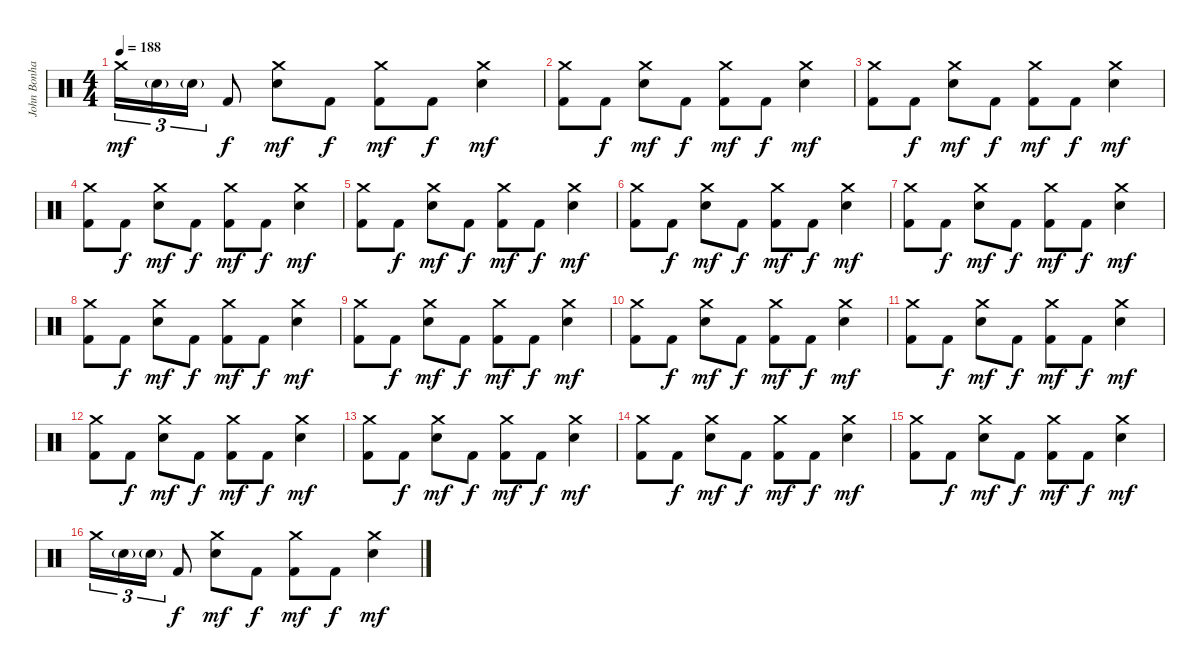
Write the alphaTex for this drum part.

\track ("John Bonham - Drums" "John Bonha") {instrument percussion}
\staff {score}
\articulation defaults
\ts (4 4)
\tempo 188
\clef neutral
\ks c "Crash medium (hit)".16{tu (3 2) dy mf} "Electric Snare (hit)"{g}.16{tu (3 2)} "Electric Snare (hit)"{g}.16{tu (3 2)} "Kick (hit) 2".8{dy f}
("Crash medium (hit)" "Electric Snare (hit)").8{dy mf} "Kick (hit) 2".8{dy f} ("Crash medium (hit)" "Kick (hit) 2").8{dy mf} "Kick (hit) 2".8{dy f} ("Crash medium (hit)" "Electric Snare (hit)").4{dy mf} |
("Crash medium (hit)" "Kick (hit) 2").8 "Kick (hit) 2".8{dy f} ("Crash medium (hit)" "Electric Snare (hit)").8{dy mf} "Kick (hit) 2".8{dy f} ("Crash medium (hit)" "Kick (hit) 2").8{dy mf} "Kick (hit) 2".8{dy f} ("Crash medium (hit)" "Electric Snare (hit)").4{dy mf} |
("Crash medium (hit)" "Kick (hit) 2").8 "Kick (hit) 2".8{dy f} ("Crash medium (hit)" "Electric Snare (hit)").8{dy mf} "Kick (hit) 2".8{dy f} ("Crash medium (hit)" "Kick (hit) 2").8{dy mf} "Kick (hit) 2".8{dy f} ("Crash medium (hit)" "Electric Snare (hit)").4{dy mf} |
("Crash medium (hit)" "Kick (hit) 2").8 "Kick (hit) 2".8{dy f} ("Crash medium (hit)" "Electric Snare (hit)").8{dy mf} "Kick (hit) 2".8{dy f} ("Crash medium (hit)" "Kick (hit) 2").8{dy mf} "Kick (hit) 2".8{dy f} ("Crash medium (hit)" "Electric Snare (hit)").4{dy mf} |
("Crash medium (hit)" "Kick (hit) 2").8 "Kick (hit) 2".8{dy f} ("Crash medium (hit)" "Electric Snare (hit)").8{dy mf} "Kick (hit) 2".8{dy f} ("Crash medium (hit)" "Kick (hit) 2").8{dy mf} "Kick (hit) 2".8{dy f} ("Crash medium (hit)" "Electric Snare (hit)").4{dy mf} |
("Crash medium (hit)" "Kick (hit) 2").8 "Kick (hit) 2".8{dy f} ("Crash medium (hit)" "Electric Snare (hit)").8{dy mf} "Kick (hit) 2".8{dy f} ("Crash medium (hit)" "Kick (hit) 2").8{dy mf} "Kick (hit) 2".8{dy f} ("Crash medium (hit)" "Electric Snare (hit)").4{dy mf} |
("Crash medium (hit)" "Kick (hit) 2").8 "Kick (hit) 2".8{dy f} ("Crash medium (hit)" "Electric Snare (hit)").8{dy mf} "Kick (hit) 2".8{dy f} ("Crash medium (hit)" "Kick (hit) 2").8{dy mf} "Kick (hit) 2".8{dy f} ("Crash medium (hit)" "Electric Snare (hit)").4{dy mf} |
("Crash medium (hit)" "Kick (hit) 2").8 "Kick (hit) 2".8{dy f} ("Crash medium (hit)" "Electric Snare (hit)").8{dy mf} "Kick (hit) 2".8{dy f} ("Crash medium (hit)" "Kick (hit) 2").8{dy mf} "Kick (hit) 2".8{dy f} ("Crash medium (hit)" "Electric Snare (hit)").4{dy mf} |
("Crash medium (hit)" "Kick (hit) 2").8 "Kick (hit) 2".8{dy f} ("Crash medium (hit)" "Electric Snare (hit)").8{dy mf} "Kick (hit) 2".8{dy f} ("Crash medium (hit)" "Kick (hit) 2").8{dy mf} "Kick (hit) 2".8{dy f} ("Crash medium (hit)" "Electric Snare (hit)").4{dy mf} |
("Crash medium (hit)" "Kick (hit) 2").8 "Kick (hit) 2".8{dy f} ("Crash medium (hit)" "Electric Snare (hit)").8{dy mf} "Kick (hit) 2".8{dy f} ("Crash medium (hit)" "Kick (hit) 2").8{dy mf} "Kick (hit) 2".8{dy f} ("Crash medium (hit)" "Electric Snare (hit)").4{dy mf} |
("Crash medium (hit)" "Kick (hit) 2").8 "Kick (hit) 2".8{dy f} ("Crash medium (hit)" "Electric Snare (hit)").8{dy mf} "Kick (hit) 2".8{dy f} ("Crash medium (hit)" "Kick (hit) 2").8{dy mf} "Kick (hit) 2".8{dy f} ("Crash medium (hit)" "Electric Snare (hit)").4{dy mf} |
("Crash medium (hit)" "Kick (hit) 2").8 "Kick (hit) 2".8{dy f} ("Crash medium (hit)" "Electric Snare (hit)").8{dy mf} "Kick (hit) 2".8{dy f} ("Crash medium (hit)" "Kick (hit) 2").8{dy mf} "Kick (hit) 2".8{dy f} ("Crash medium (hit)" "Electric Snare (hit)").4{dy mf} |
("Crash medium (hit)" "Kick (hit) 2").8 "Kick (hit) 2".8{dy f} ("Crash medium (hit)" "Electric Snare (hit)").8{dy mf} "Kick (hit) 2".8{dy f} ("Crash medium (hit)" "Kick (hit) 2").8{dy mf} "Kick (hit) 2".8{dy f} ("Crash medium (hit)" "Electric Snare (hit)").4{dy mf} |
("Crash medium (hit)" "Kick (hit) 2").8 "Kick (hit) 2".8{dy f} ("Crash medium (hit)" "Electric Snare (hit)").8{dy mf} "Kick (hit) 2".8{dy f} ("Crash medium (hit)" "Kick (hit) 2").8{dy mf} "Kick (hit) 2".8{dy f} ("Crash medium (hit)" "Electric Snare (hit)").4{dy mf} |
("Crash medium (hit)" "Kick (hit) 2").8 "Kick (hit) 2".8{dy f} ("Crash medium (hit)" "Electric Snare (hit)").8{dy mf} "Kick (hit) 2".8{dy f} ("Crash medium (hit)" "Kick (hit) 2").8{dy mf} "Kick (hit) 2".8{dy f} ("Crash medium (hit)" "Electric Snare (hit)").4{dy mf} |
"Crash medium (hit)".16{tu (3 2)} "Electric Snare (hit)"{g}.16{tu (3 2)} "Electric Snare (hit)"{g}.16{tu (3 2)} "Kick (hit) 2".8{dy f} ("Crash medium (hit)" "Electric Snare (hit)").8{dy mf} "Kick (hit) 2".8{dy f} ("Crash medium (hit)" "Kick (hit) 2").8{dy mf} "Kick (hit) 2".8{dy f} ("Crash medium (hit)" "Electric Snare (hit)").4{dy mf}
